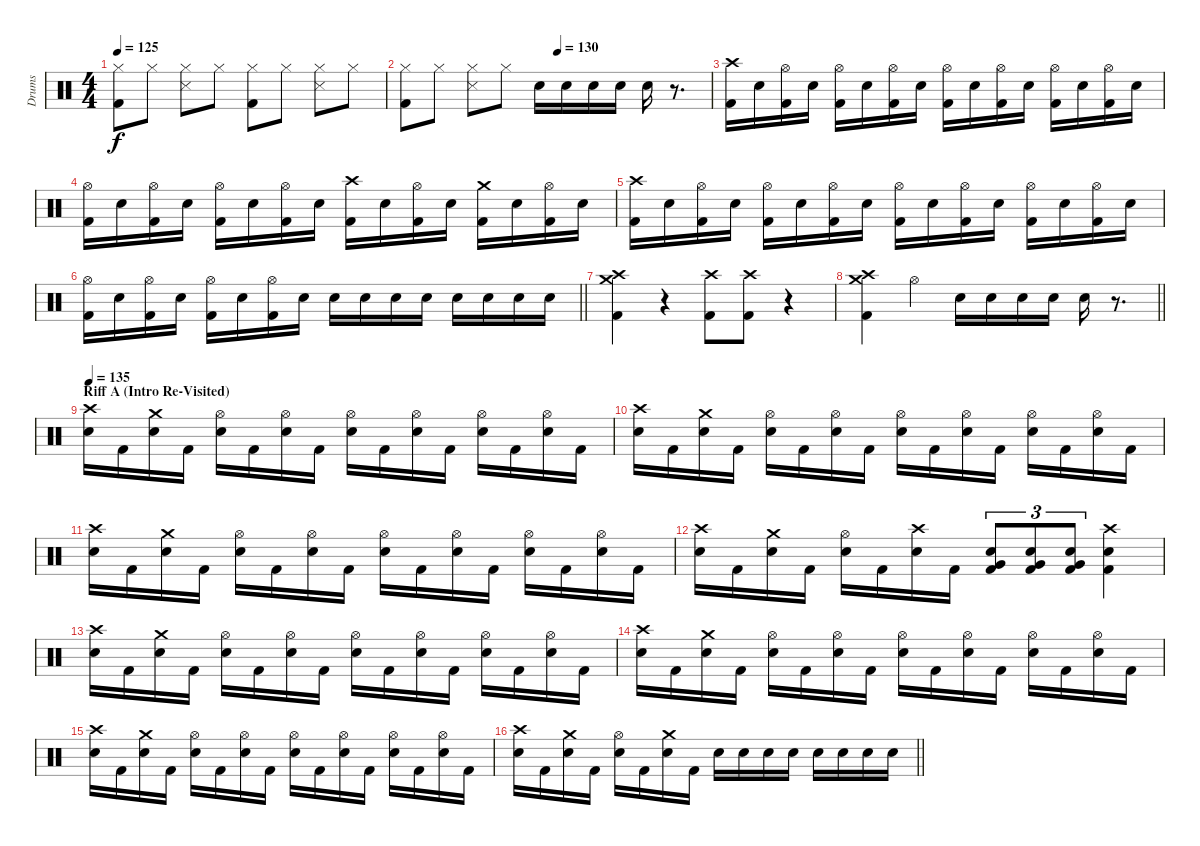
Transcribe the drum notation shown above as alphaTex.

\track ("Drums" "Drums") {instrument percussion}
\staff {score}
\articulation defaults
\ts (4 4)
\tempo 125
\clef neutral
\ks c
("Hi-Hat (closed)" "Kick (hit) 2").8{dy f} "Hi-Hat (closed)".8 ("Hi-Hat (closed)" "Snare (side stick) 3").8 "Hi-Hat (closed)".8 ("Hi-Hat (closed)" "Kick (hit) 2").8 "Hi-Hat (closed)".8 ("Hi-Hat (closed)" "Snare (side stick) 3").8 "Hi-Hat (closed)".8 |
\tempo (130 0.5)
("Hi-Hat (closed)" "Kick (hit) 2").8 "Hi-Hat (closed)".8 ("Hi-Hat (closed)" "Snare (side stick) 3").8 "Hi-Hat (closed)".8 "Snare (hit) 2".16 "Snare (hit) 2".16 "Snare (hit) 2".16 "Snare (hit) 2".16 "Snare (hit) 2".16 r.8{d} |
("Crash high (hit)" "Kick (hit) 2").16 "Snare (hit) 2".16 ("Hi-Hat (open)" "Kick (hit) 2").16 "Snare (hit) 2".16 ("Hi-Hat (open)" "Kick (hit) 2").16 "Snare (hit) 2".16 ("Hi-Hat (open)" "Kick (hit) 2").16 "Snare (hit) 2".16 ("Hi-Hat (open)" "Kick (hit) 2").16 "Snare (hit) 2".16 ("Hi-Hat (open)" "Kick (hit) 2").16 "Snare (hit) 2".16 ("Hi-Hat (open)" "Kick (hit) 2").16 "Snare (hit) 2".16 ("Hi-Hat (open)" "Kick (hit) 2").16 "Snare (hit) 2".16 |
("Hi-Hat (open)" "Kick (hit) 2").16 "Snare (hit) 2".16 ("Hi-Hat (open)" "Kick (hit) 2").16 "Snare (hit) 2".16 ("Hi-Hat (open)" "Kick (hit) 2").16 "Snare (hit) 2".16 ("Hi-Hat (open)" "Kick (hit) 2").16 "Snare (hit) 2".16 ("Crash high (hit)" "Kick (hit) 2").16 "Snare (hit) 2".16 ("Hi-Hat (open)" "Kick (hit) 2").16 "Snare (hit) 2".16 ("Crash medium (hit)" "Kick (hit) 2").16 "Snare (hit) 2".16 ("Hi-Hat (open)" "Kick (hit) 2").16 "Snare (hit) 2".16 |
("Crash high (hit)" "Kick (hit) 2").16 "Snare (hit) 2".16 ("Hi-Hat (open)" "Kick (hit) 2").16 "Snare (hit) 2".16 ("Hi-Hat (open)" "Kick (hit) 2").16 "Snare (hit) 2".16 ("Hi-Hat (open)" "Kick (hit) 2").16 "Snare (hit) 2".16 ("Hi-Hat (open)" "Kick (hit) 2").16 "Snare (hit) 2".16 ("Hi-Hat (open)" "Kick (hit) 2").16 "Snare (hit) 2".16 ("Hi-Hat (open)" "Kick (hit) 2").16 "Snare (hit) 2".16 ("Hi-Hat (open)" "Kick (hit) 2").16 "Snare (hit) 2".16 |
\barLineRight lightlight
("Hi-Hat (open)" "Kick (hit) 2").16 "Snare (hit) 2".16 ("Hi-Hat (open)" "Kick (hit) 2").16 "Snare (hit) 2".16 ("Hi-Hat (open)" "Kick (hit) 2").16 "Snare (hit) 2".16 ("Hi-Hat (open)" "Kick (hit) 2").16 "Snare (hit) 2".16 "Snare (hit) 2".16 "Snare (hit) 2".16 "Snare (hit) 2".16 "Snare (hit) 2".16 "Snare (hit) 2".16 "Snare (hit) 2".16 "Snare (hit) 2".16 "Snare (hit) 2".16 |
("Crash high (hit)" "Crash medium (hit)" "Kick (hit) 2").4 r.4 ("Crash high (hit)" "Kick (hit) 2").8 ("Crash high (hit)" "Kick (hit) 2").8 r.4 |
\barLineRight lightlight
("Crash high (hit)" "Crash medium (hit)" "Kick (hit) 2").4 "Hi-Hat (open)".4 "Snare (hit) 2".16 "Snare (hit) 2".16 "Snare (hit) 2".16 "Snare (hit) 2".16 "Snare (hit) 2".16 r.8{d} |
\section ("" "Riff A (Intro Re-Visited)")
\tempo 135
("Crash high (hit)" "Snare (hit) 2").16 "Kick (hit) 2".16 ("Crash medium (hit)" "Snare (hit) 2").16 "Kick (hit) 2".16 ("Hi-Hat (open)" "Snare (hit) 2").16 "Kick (hit) 2".16 ("Hi-Hat (open)" "Snare (hit) 2").16 "Kick (hit) 2".16 ("Hi-Hat (open)" "Snare (hit) 2").16 "Kick (hit) 2".16 ("Hi-Hat (open)" "Snare (hit) 2").16 "Kick (hit) 2".16 ("Hi-Hat (open)" "Snare (hit) 2").16 "Kick (hit) 2".16 ("Hi-Hat (open)" "Snare (hit) 2").16 "Kick (hit) 2".16 |
("Crash high (hit)" "Snare (hit) 2").16 "Kick (hit) 2".16 ("Crash medium (hit)" "Snare (hit) 2").16 "Kick (hit) 2".16 ("Hi-Hat (open)" "Snare (hit) 2").16 "Kick (hit) 2".16 ("Hi-Hat (open)" "Snare (hit) 2").16 "Kick (hit) 2".16 ("Hi-Hat (open)" "Snare (hit) 2").16 "Kick (hit) 2".16 ("Hi-Hat (open)" "Snare (hit) 2").16 "Kick (hit) 2".16 ("Hi-Hat (open)" "Snare (hit) 2").16 "Kick (hit) 2".16 ("Hi-Hat (open)" "Snare (hit) 2").16 "Kick (hit) 2".16 |
("Crash high (hit)" "Snare (hit) 2").16 "Kick (hit) 2".16 ("Crash medium (hit)" "Snare (hit) 2").16 "Kick (hit) 2".16 ("Hi-Hat (open)" "Snare (hit) 2").16 "Kick (hit) 2".16 ("Hi-Hat (open)" "Snare (hit) 2").16 "Kick (hit) 2".16 ("Hi-Hat (open)" "Snare (hit) 2").16 "Kick (hit) 2".16 ("Hi-Hat (open)" "Snare (hit) 2").16 "Kick (hit) 2".16 ("Hi-Hat (open)" "Snare (hit) 2").16 "Kick (hit) 2".16 ("Hi-Hat (open)" "Snare (hit) 2").16 "Kick (hit) 2".16 |
("Crash high (hit)" "Snare (hit) 2").16 "Kick (hit) 2".16 ("Crash medium (hit)" "Snare (hit) 2").16 "Kick (hit) 2".16 ("Hi-Hat (open)" "Snare (hit) 2").16 "Kick (hit) 2".16 ("Crash high (hit)" "Snare (hit) 2").16 "Kick (hit) 2".16 ("Very Low Tom (hit)" "Snare (hit) 2" "Kick (hit) 2").8{tu (3 2)} ("Very Low Tom (hit)" "Snare (hit) 2" "Kick (hit) 2").8{tu (3 2)} ("Very Low Tom (hit)" "Snare (hit) 2" "Kick (hit) 2").8{tu (3 2)} ("Crash high (hit)" "Snare (hit) 2" "Kick (hit) 2").4 |
("Crash high (hit)" "Snare (hit) 2").16 "Kick (hit) 2".16 ("Crash medium (hit)" "Snare (hit) 2").16 "Kick (hit) 2".16 ("Hi-Hat (open)" "Snare (hit) 2").16 "Kick (hit) 2".16 ("Hi-Hat (open)" "Snare (hit) 2").16 "Kick (hit) 2".16 ("Hi-Hat (open)" "Snare (hit) 2").16 "Kick (hit) 2".16 ("Hi-Hat (open)" "Snare (hit) 2").16 "Kick (hit) 2".16 ("Hi-Hat (open)" "Snare (hit) 2").16 "Kick (hit) 2".16 ("Hi-Hat (open)" "Snare (hit) 2").16 "Kick (hit) 2".16 |
("Crash high (hit)" "Snare (hit) 2").16 "Kick (hit) 2".16 ("Crash medium (hit)" "Snare (hit) 2").16 "Kick (hit) 2".16 ("Hi-Hat (open)" "Snare (hit) 2").16 "Kick (hit) 2".16 ("Hi-Hat (open)" "Snare (hit) 2").16 "Kick (hit) 2".16 ("Hi-Hat (open)" "Snare (hit) 2").16 "Kick (hit) 2".16 ("Hi-Hat (open)" "Snare (hit) 2").16 "Kick (hit) 2".16 ("Hi-Hat (open)" "Snare (hit) 2").16 "Kick (hit) 2".16 ("Hi-Hat (open)" "Snare (hit) 2").16 "Kick (hit) 2".16 |
("Crash high (hit)" "Snare (hit) 2").16 "Kick (hit) 2".16 ("Crash medium (hit)" "Snare (hit) 2").16 "Kick (hit) 2".16 ("Hi-Hat (open)" "Snare (hit) 2").16 "Kick (hit) 2".16 ("Hi-Hat (open)" "Snare (hit) 2").16 "Kick (hit) 2".16 ("Hi-Hat (open)" "Snare (hit) 2").16 "Kick (hit) 2".16 ("Hi-Hat (open)" "Snare (hit) 2").16 "Kick (hit) 2".16 ("Hi-Hat (open)" "Snare (hit) 2").16 "Kick (hit) 2".16 ("Hi-Hat (open)" "Snare (hit) 2").16 "Kick (hit) 2".16 |
\barLineRight lightlight
("Crash high (hit)" "Snare (hit) 2").16 "Kick (hit) 2".16 ("Crash medium (hit)" "Snare (hit) 2").16 "Kick (hit) 2".16 ("Hi-Hat (open)" "Snare (hit) 2").16 "Kick (hit) 2".16 ("Crash medium (hit)" "Snare (hit) 2").16 "Kick (hit) 2".16 "Snare (hit) 2".16 "Snare (hit) 2".16 "Snare (hit) 2".16 "Snare (hit) 2".16 "Snare (hit) 2".16 "Snare (hit) 2".16 "Snare (hit) 2".16 "Snare (hit) 2".16
